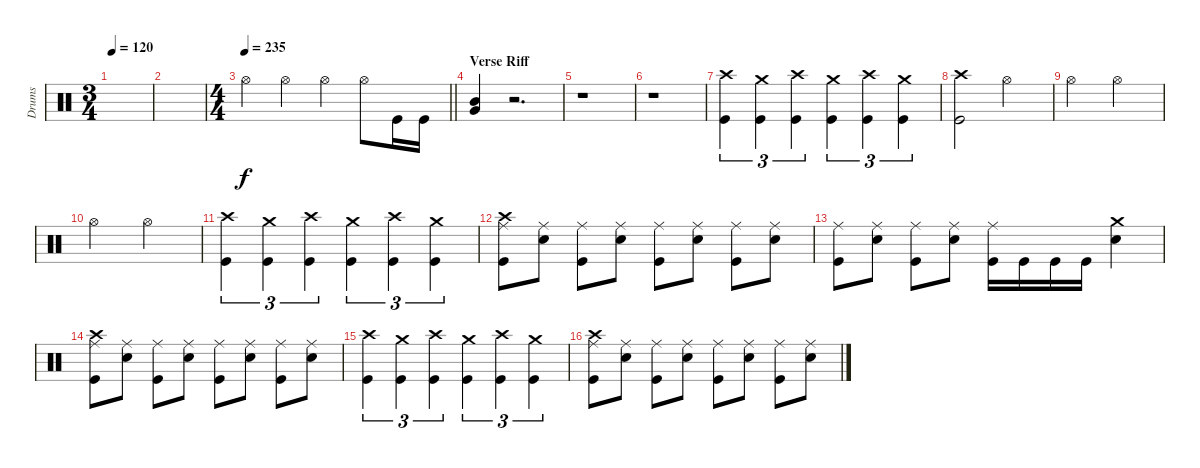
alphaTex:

\track ("Drums" "Drums") {instrument percussion}
\staff {score}
\articulation defaults
\ts (3 4)
\tempo 120
\clef neutral
\ks c
|
|
\ts (4 4)
\tempo 235
\barLineRight lightlight "Hi-Hat (open)".4 "Hi-Hat (open)".4 "Hi-Hat (open)".4 "Hi-Hat (open)".8 "Kick (hit)".16 "Kick (hit)".16
|
\section ("" "Verse Riff")
("Very Low Tom (hit)" "Mid Tom (hit)").4 r.2{d} |
r.1 |
r.1 |
("Crash high (hit)" "Kick (hit)").4{tu (3 2)} ("Crash medium (hit)" "Kick (hit)").4{tu (3 2)} ("Crash high (hit)" "Kick (hit)").4{tu (3 2)} ("Crash medium (hit)" "Kick (hit)").4{tu (3 2)} ("Crash high (hit)" "Kick (hit)").4{tu (3 2)} ("Crash medium (hit)" "Kick (hit)").4{tu (3 2)} |
("Crash high (hit)" "Kick (hit)").2 "Hi-Hat (open)".2 |
"Hi-Hat (open)".2 "Hi-Hat (open)".2 |
"Hi-Hat (open)".2 "Hi-Hat (open)".2 |
("Crash high (hit)" "Kick (hit)").4{tu (3 2)} ("Crash medium (hit)" "Kick (hit)").4{tu (3 2)} ("Crash high (hit)" "Kick (hit)").4{tu (3 2)} ("Crash medium (hit)" "Kick (hit)").4{tu (3 2)} ("Crash high (hit)" "Kick (hit)").4{tu (3 2)} ("Crash medium (hit)" "Kick (hit)").4{tu (3 2)} |
("Crash high (hit)" "Ride (middle)" "Kick (hit)").8 ("Ride (middle)" "Electric Snare (hit)").8 ("Ride (middle)" "Kick (hit)").8 ("Ride (middle)" "Electric Snare (hit)").8 ("Ride (middle)" "Kick (hit)").8 ("Ride (middle)" "Electric Snare (hit)").8 ("Ride (middle)" "Kick (hit)").8 ("Ride (middle)" "Electric Snare (hit)").8 |
("Ride (middle)" "Kick (hit)").8 ("Ride (middle)" "Electric Snare (hit)").8 ("Ride (middle)" "Kick (hit)").8 ("Ride (middle)" "Electric Snare (hit)").8 ("Ride (middle)" "Kick (hit)").16 "Kick (hit)".16 "Kick (hit)".16 "Kick (hit)".16 ("Crash medium (hit)" "Electric Snare (hit)").4 |
("Crash high (hit)" "Ride (middle)" "Kick (hit)").8 ("Ride (middle)" "Electric Snare (hit)").8 ("Ride (middle)" "Kick (hit)").8 ("Ride (middle)" "Electric Snare (hit)").8 ("Ride (middle)" "Kick (hit)").8 ("Ride (middle)" "Electric Snare (hit)").8 ("Ride (middle)" "Kick (hit)").8 ("Ride (middle)" "Electric Snare (hit)").8 |
("Crash high (hit)" "Kick (hit)").4{tu (3 2)} ("Crash medium (hit)" "Kick (hit)").4{tu (3 2)} ("Crash high (hit)" "Kick (hit)").4{tu (3 2)} ("Crash medium (hit)" "Kick (hit)").4{tu (3 2)} ("Crash high (hit)" "Kick (hit)").4{tu (3 2)} ("Crash medium (hit)" "Kick (hit)").4{tu (3 2)} |
("Crash high (hit)" "Ride (middle)" "Kick (hit)").8 ("Ride (middle)" "Electric Snare (hit)").8 ("Ride (middle)" "Kick (hit)").8 ("Ride (middle)" "Electric Snare (hit)").8 ("Ride (middle)" "Kick (hit)").8 ("Ride (middle)" "Electric Snare (hit)").8 ("Ride (middle)" "Kick (hit)").8 ("Ride (middle)" "Electric Snare (hit)").8
